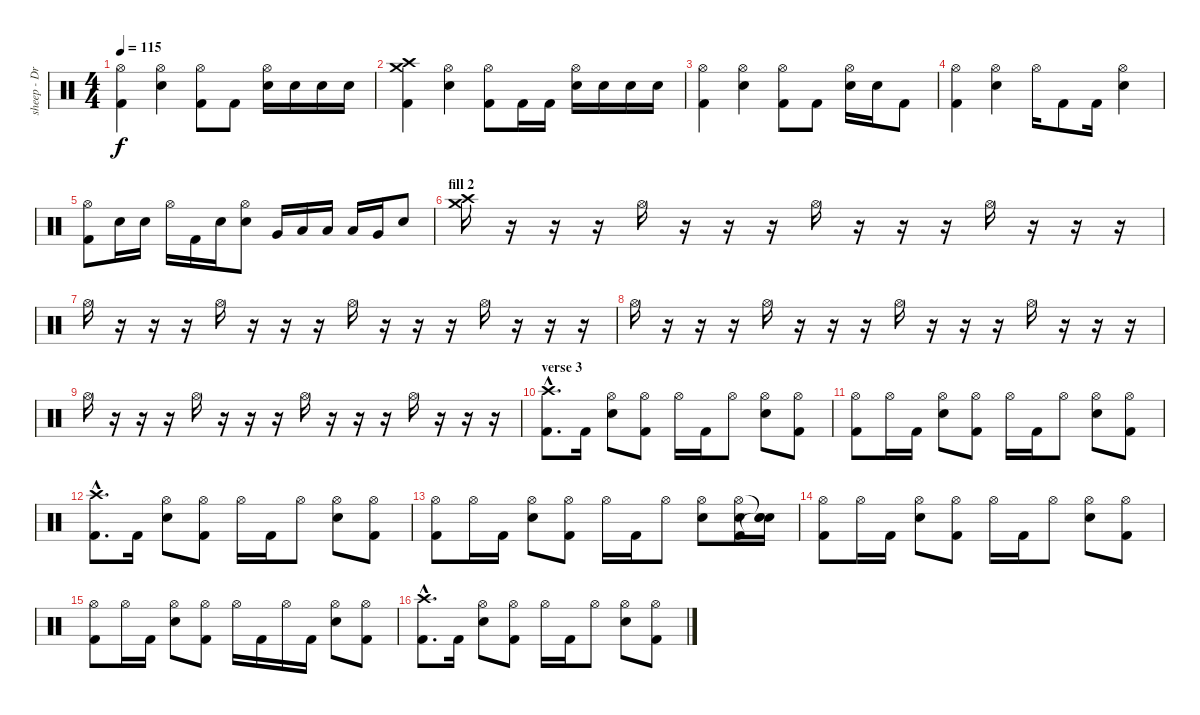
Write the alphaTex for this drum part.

\track ("sheep - Drum track (guide)" "sheep - Dr") {instrument percussion}
\staff {score}
\articulation defaults
\ts (4 4)
\tempo 115
\clef neutral
\ks c
("Hi-Hat (open)" "Kick (hit) 2").4{dy f} ("Hi-Hat (open)" "Electric Snare (hit)").4 ("Hi-Hat (open)" "Kick (hit) 2").8 "Kick (hit) 2".8 ("Hi-Hat (open)" "Electric Snare (hit)").16 "Electric Snare (hit)".16 "Electric Snare (hit)".16 "Electric Snare (hit)".16 |
("Crash high (hit)" "Crash medium (hit)" "Kick (hit) 2").4 ("Hi-Hat (open)" "Electric Snare (hit)").4 ("Hi-Hat (open)" "Kick (hit) 2").8 "Kick (hit) 2".16 "Kick (hit) 2".16 ("Hi-Hat (open)" "Electric Snare (hit)").16 "Electric Snare (hit)".16 "Electric Snare (hit)".16 "Electric Snare (hit)".16 |
("Hi-Hat (open)" "Kick (hit) 2").4 ("Hi-Hat (open)" "Electric Snare (hit)").4 ("Hi-Hat (open)" "Kick (hit) 2").8 "Kick (hit) 2".8 ("Hi-Hat (open)" "Electric Snare (hit)").16 "Electric Snare (hit)".16 "Kick (hit) 2".8 |
("Hi-Hat (open)" "Kick (hit) 2").4 ("Hi-Hat (open)" "Electric Snare (hit)").4 "Hi-Hat (open)".16 "Kick (hit) 2".8 "Kick (hit) 2".16 ("Hi-Hat (open)" "Electric Snare (hit)").4 |
("Hi-Hat (open)" "Kick (hit) 2").8 "Electric Snare (hit)".16 "Electric Snare (hit)".16 "Hi-Hat (open)".16 "Kick (hit) 2".16 "Electric Snare (hit)".16 ("Hi-Hat (open)" "Electric Snare (hit)").8 "Very Low Tom (hit)".16 "Low Floor Tom (hit)".16 "Low Tom (hit)".16 "Low Floor Tom (hit)".16 "Very Low Tom (hit)".16 "Electric Snare (hit)".8 |
\section ("" "fill 2")
("Crash high (hit)" "Crash medium (hit)").16 r.16 r.16 r.16 "Hi-Hat (open)".16 r.16 r.16 r.16 "Hi-Hat (open)".16 r.16 r.16 r.16 "Hi-Hat (open)".16 r.16 r.16 r.16 |
"Hi-Hat (open)".16 r.16 r.16 r.16 "Hi-Hat (open)".16 r.16 r.16 r.16 "Hi-Hat (open)".16 r.16 r.16 r.16 "Hi-Hat (open)".16 r.16 r.16 r.16 |
"Hi-Hat (open)".16 r.16 r.16 r.16 "Hi-Hat (open)".16 r.16 r.16 r.16 "Hi-Hat (open)".16 r.16 r.16 r.16 "Hi-Hat (open)".16 r.16 r.16 r.16 |
"Hi-Hat (open)".16 r.16 r.16 r.16 "Hi-Hat (open)".16 r.16 r.16 r.16 "Hi-Hat (open)".16 r.16 r.16 r.16 "Hi-Hat (open)".16 r.16 r.16 r.16 |
\section ("" "verse 3")
("Crash high (hit)"{hac} "Kick (hit) 2"{hac}).8{d} "Kick (hit) 2".16 ("Hi-Hat (open)" "Electric Snare (hit)").8 ("Hi-Hat (open)" "Kick (hit) 2").8 "Hi-Hat (open)".16 "Kick (hit) 2".16 "Hi-Hat (open)".8 ("Hi-Hat (open)" "Electric Snare (hit)").8 ("Hi-Hat (open)" "Kick (hit) 2").8 |
("Hi-Hat (open)" "Kick (hit) 2").8 "Hi-Hat (open)".16 "Kick (hit) 2".16 ("Hi-Hat (open)" "Electric Snare (hit)").8 ("Hi-Hat (open)" "Kick (hit) 2").8 "Hi-Hat (open)".16 "Kick (hit) 2".16 "Hi-Hat (open)".8 ("Hi-Hat (open)" "Electric Snare (hit)").8 ("Hi-Hat (open)" "Kick (hit) 2").8 |
("Crash high (hit)"{hac} "Kick (hit) 2"{hac}).8{d} "Kick (hit) 2".16 ("Hi-Hat (open)" "Electric Snare (hit)").8 ("Hi-Hat (open)" "Kick (hit) 2").8 "Hi-Hat (open)".16 "Kick (hit) 2".16 "Hi-Hat (open)".8 ("Hi-Hat (open)" "Electric Snare (hit)").8 ("Hi-Hat (open)" "Kick (hit) 2").8 |
("Hi-Hat (open)" "Kick (hit) 2").8 "Hi-Hat (open)".16 "Kick (hit) 2".16 ("Hi-Hat (open)" "Electric Snare (hit)").8 ("Hi-Hat (open)" "Kick (hit) 2").8 "Hi-Hat (open)".16 "Kick (hit) 2".16 "Hi-Hat (open)".8 ("Hi-Hat (open)" "Electric Snare (hit)").8 ("Hi-Hat (open)" "Electric Snare (hit)" "Kick (hit) 2").16 ("Snare (hit)"{t} "Electric Snare (hit)" "Snare (hit)"{t}).16 |
("Hi-Hat (open)" "Kick (hit) 2").8 "Hi-Hat (open)".16 "Kick (hit) 2".16 ("Hi-Hat (open)" "Electric Snare (hit)").8 ("Hi-Hat (open)" "Kick (hit) 2").8 "Hi-Hat (open)".16 "Kick (hit) 2".16 "Hi-Hat (open)".8 ("Hi-Hat (open)" "Electric Snare (hit)").8 ("Hi-Hat (open)" "Kick (hit) 2").8 |
("Hi-Hat (open)" "Kick (hit) 2").8 "Hi-Hat (open)".16 "Kick (hit) 2".16 ("Hi-Hat (open)" "Electric Snare (hit)").8 ("Hi-Hat (open)" "Kick (hit) 2").8 "Hi-Hat (open)".16 "Kick (hit) 2".16 "Hi-Hat (open)".16 "Kick (hit) 2".16 ("Hi-Hat (open)" "Electric Snare (hit)").8 ("Hi-Hat (open)" "Kick (hit) 2").8 |
("Crash high (hit)"{hac} "Kick (hit) 2"{hac}).8{d} "Kick (hit) 2".16 ("Hi-Hat (open)" "Electric Snare (hit)").8 ("Hi-Hat (open)" "Kick (hit) 2").8 "Hi-Hat (open)".16 "Kick (hit) 2".16 "Hi-Hat (open)".8 ("Hi-Hat (open)" "Electric Snare (hit)").8 ("Hi-Hat (open)" "Kick (hit) 2").8
